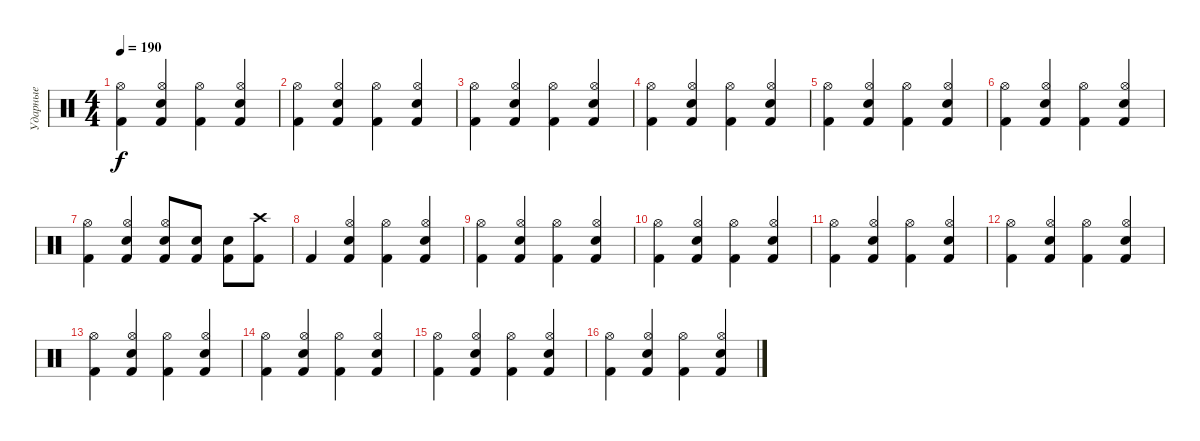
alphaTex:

\track ("Ударные" "Ударные") {instrument percussion}
\staff
\articulation defaults
\ts (4 4)
\tempo 190
\clef neutral
\ks c
("Kick (hit) 2" "Hi-Hat (open)").4{dy f} ("Kick (hit) 2" "Snare (hit) 2" "Hi-Hat (open)").4 ("Kick (hit) 2" "Hi-Hat (open)").4 ("Kick (hit) 2" "Snare (hit) 2" "Hi-Hat (open)").4 |
("Kick (hit) 2" "Hi-Hat (open)").4 ("Kick (hit) 2" "Snare (hit) 2" "Hi-Hat (open)").4 ("Kick (hit) 2" "Hi-Hat (open)").4 ("Kick (hit) 2" "Snare (hit) 2" "Hi-Hat (open)").4 |
("Kick (hit) 2" "Hi-Hat (open)").4 ("Kick (hit) 2" "Snare (hit) 2" "Hi-Hat (open)").4 ("Kick (hit) 2" "Hi-Hat (open)").4 ("Kick (hit) 2" "Snare (hit) 2" "Hi-Hat (open)").4 |
("Kick (hit) 2" "Hi-Hat (open)").4 ("Kick (hit) 2" "Snare (hit) 2" "Hi-Hat (open)").4 ("Kick (hit) 2" "Hi-Hat (open)").4 ("Kick (hit) 2" "Snare (hit) 2" "Hi-Hat (open)").4 |
("Kick (hit) 2" "Hi-Hat (open)").4 ("Kick (hit) 2" "Snare (hit) 2" "Hi-Hat (open)").4 ("Kick (hit) 2" "Hi-Hat (open)").4 ("Kick (hit) 2" "Snare (hit) 2" "Hi-Hat (open)").4 |
("Kick (hit) 2" "Hi-Hat (open)").4 ("Kick (hit) 2" "Snare (hit) 2" "Hi-Hat (open)").4 ("Kick (hit) 2" "Hi-Hat (open)").4 ("Kick (hit) 2" "Snare (hit) 2" "Hi-Hat (open)").4 |
("Kick (hit) 2" "Hi-Hat (open)").4 ("Kick (hit) 2" "Snare (hit) 2" "Hi-Hat (open)").4 ("Kick (hit) 2" "Snare (hit) 2" "Hi-Hat (open)").8 ("Kick (hit) 2" "Snare (hit) 2").8 ("Snare (hit) 2" "Kick (hit) 2").8 ("Kick (hit) 2" "Crash high (hit)").8 |
"Kick (hit) 2".4 ("Kick (hit) 2" "Snare (hit) 2" "Hi-Hat (open)").4 ("Kick (hit) 2" "Hi-Hat (open)").4 ("Kick (hit) 2" "Snare (hit) 2" "Hi-Hat (open)").4 |
("Kick (hit) 2" "Hi-Hat (open)").4 ("Kick (hit) 2" "Snare (hit) 2" "Hi-Hat (open)").4 ("Kick (hit) 2" "Hi-Hat (open)").4 ("Kick (hit) 2" "Snare (hit) 2" "Hi-Hat (open)").4 |
("Kick (hit) 2" "Hi-Hat (open)").4 ("Kick (hit) 2" "Snare (hit) 2" "Hi-Hat (open)").4 ("Kick (hit) 2" "Hi-Hat (open)").4 ("Kick (hit) 2" "Snare (hit) 2" "Hi-Hat (open)").4 |
("Kick (hit) 2" "Hi-Hat (open)").4 ("Kick (hit) 2" "Snare (hit) 2" "Hi-Hat (open)").4 ("Kick (hit) 2" "Hi-Hat (open)").4 ("Kick (hit) 2" "Snare (hit) 2" "Hi-Hat (open)").4 |
("Kick (hit) 2" "Hi-Hat (open)").4 ("Kick (hit) 2" "Snare (hit) 2" "Hi-Hat (open)").4 ("Kick (hit) 2" "Hi-Hat (open)").4 ("Kick (hit) 2" "Snare (hit) 2" "Hi-Hat (open)").4 |
("Kick (hit) 2" "Hi-Hat (open)").4 ("Kick (hit) 2" "Snare (hit) 2" "Hi-Hat (open)").4 ("Kick (hit) 2" "Hi-Hat (open)").4 ("Kick (hit) 2" "Snare (hit) 2" "Hi-Hat (open)").4 |
("Kick (hit) 2" "Hi-Hat (open)").4 ("Kick (hit) 2" "Snare (hit) 2" "Hi-Hat (open)").4 ("Kick (hit) 2" "Hi-Hat (open)").4 ("Kick (hit) 2" "Snare (hit) 2" "Hi-Hat (open)").4 |
("Kick (hit) 2" "Hi-Hat (open)").4 ("Kick (hit) 2" "Snare (hit) 2" "Hi-Hat (open)").4 ("Kick (hit) 2" "Hi-Hat (open)").4 ("Kick (hit) 2" "Snare (hit) 2" "Hi-Hat (open)").4 |
("Kick (hit) 2" "Hi-Hat (open)").4 ("Kick (hit) 2" "Snare (hit) 2" "Hi-Hat (open)").4 ("Kick (hit) 2" "Hi-Hat (open)").4 ("Kick (hit) 2" "Snare (hit) 2" "Hi-Hat (open)").4
